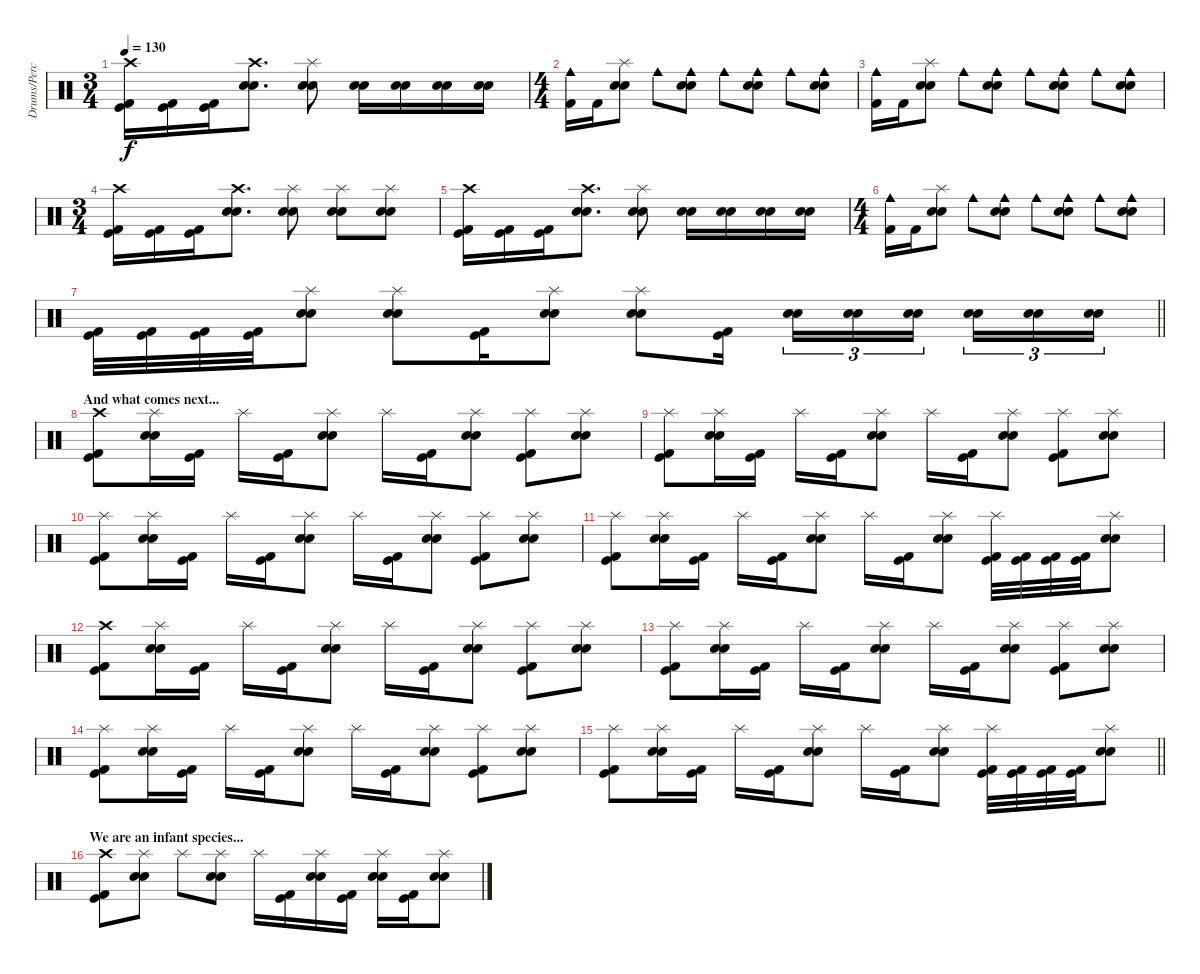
\track ("Drums/Percussion" "Drums/Perc") {instrument percussion}
\staff {score}
\articulation defaults
\ts (3 4)
\tempo 130
\clef neutral
\ks c
("Crash high (hit)" "Kick (hit)" "Kick (hit) 2").16{dy f} ("Kick (hit)" "Kick (hit) 2").16 ("Kick (hit)" "Kick (hit) 2").16 ("Crash high (hit)" "Electric Snare (hit)" "Snare (hit) 2").8{d} ("Splash (hit)" "Electric Snare (hit)" "Snare (hit) 2").8 ("Electric Snare (hit)" "Snare (hit) 2").16 ("Electric Snare (hit)" "Snare (hit) 2").16 ("Electric Snare (hit)" "Snare (hit) 2").16 ("Electric Snare (hit)" "Snare (hit) 2").16 |
\ts (4 4)
("Cowbell medium (hit)" "Kick (hit) 2").16 "Kick (hit) 2".16 ("Splash (hit)" "Electric Snare (hit)" "Snare (hit) 2").8 "Cowbell medium (hit)".8 ("Cowbell medium (hit)" "Electric Snare (hit)" "Snare (hit) 2").8 "Cowbell medium (hit)".8 ("Cowbell medium (hit)" "Electric Snare (hit)" "Snare (hit) 2").8 "Cowbell medium (hit)".8 ("Cowbell medium (hit)" "Electric Snare (hit)" "Snare (hit) 2").8 |
("Cowbell medium (hit)" "Kick (hit) 2").16 "Kick (hit) 2".16 ("Splash (hit)" "Electric Snare (hit)" "Snare (hit) 2").8 "Cowbell medium (hit)".8 ("Cowbell medium (hit)" "Electric Snare (hit)" "Snare (hit) 2").8 "Cowbell medium (hit)".8 ("Cowbell medium (hit)" "Electric Snare (hit)" "Snare (hit) 2").8 "Cowbell medium (hit)".8 ("Cowbell medium (hit)" "Electric Snare (hit)" "Snare (hit) 2").8 |
\ts (3 4)
("Crash high (hit)" "Kick (hit)" "Kick (hit) 2").16 ("Kick (hit)" "Kick (hit) 2").16 ("Kick (hit)" "Kick (hit) 2").16 ("Crash high (hit)" "Electric Snare (hit)" "Snare (hit) 2").8{d} ("Splash (hit)" "Electric Snare (hit)" "Snare (hit) 2").8 ("Splash (hit)" "Electric Snare (hit)" "Snare (hit) 2").8 ("Splash (hit)" "Electric Snare (hit)" "Snare (hit) 2").8 |
("Crash high (hit)" "Kick (hit)" "Kick (hit) 2").16 ("Kick (hit)" "Kick (hit) 2").16 ("Kick (hit)" "Kick (hit) 2").16 ("Crash high (hit)" "Electric Snare (hit)" "Snare (hit) 2").8{d} ("Splash (hit)" "Electric Snare (hit)" "Snare (hit) 2").8 ("Electric Snare (hit)" "Snare (hit) 2").16 ("Electric Snare (hit)" "Snare (hit) 2").16 ("Electric Snare (hit)" "Snare (hit) 2").16 ("Electric Snare (hit)" "Snare (hit) 2").16 |
\ts (4 4)
("Cowbell medium (hit)" "Kick (hit) 2").16 "Kick (hit) 2".16 ("Splash (hit)" "Electric Snare (hit)" "Snare (hit) 2").8 "Cowbell medium (hit)".8 ("Cowbell medium (hit)" "Electric Snare (hit)" "Snare (hit) 2").8 "Cowbell medium (hit)".8 ("Cowbell medium (hit)" "Electric Snare (hit)" "Snare (hit) 2").8 "Cowbell medium (hit)".8 ("Cowbell medium (hit)" "Electric Snare (hit)" "Snare (hit) 2").8 |
\barLineRight lightlight
("Kick (hit)" "Kick (hit) 2").32 ("Kick (hit)" "Kick (hit) 2").32 ("Kick (hit)" "Kick (hit) 2").32 ("Kick (hit)" "Kick (hit) 2").32 ("Splash (hit)" "Electric Snare (hit)" "Snare (hit) 2").8 ("Splash (hit)" "Electric Snare (hit)" "Snare (hit) 2").8 ("Kick (hit)" "Kick (hit) 2").16 ("Splash (hit)" "Electric Snare (hit)" "Snare (hit) 2").8 ("Splash (hit)" "Electric Snare (hit)" "Snare (hit) 2").8 ("Kick (hit)" "Kick (hit) 2").16 ("Electric Snare (hit)" "Snare (hit) 2").16{tu (3 2)} ("Electric Snare (hit)" "Snare (hit) 2").16{tu (3 2)} ("Electric Snare (hit)" "Snare (hit) 2").16{tu (3 2) beam splitsecondary} ("Electric Snare (hit)" "Snare (hit) 2").16{tu (3 2)} ("Electric Snare (hit)" "Snare (hit) 2").16{tu (3 2)} ("Electric Snare (hit)" "Snare (hit) 2").16{tu (3 2)} |
\section ("" "And what comes next...")
("Crash high (hit)" "Kick (hit)" "Kick (hit) 2").8 ("Splash (hit)" "Electric Snare (hit)" "Snare (hit) 2").16 ("Kick (hit)" "Kick (hit) 2").16 "Splash (hit)".16 ("Kick (hit)" "Kick (hit) 2").16 ("Splash (hit)" "Electric Snare (hit)" "Snare (hit) 2").8 "Splash (hit)".16 ("Kick (hit)" "Kick (hit) 2").16 ("Splash (hit)" "Electric Snare (hit)" "Snare (hit) 2").8 ("Splash (hit)" "Kick (hit)" "Kick (hit) 2").8 ("Splash (hit)" "Electric Snare (hit)" "Snare (hit) 2").8 |
("Splash (hit)" "Kick (hit)" "Kick (hit) 2").8 ("Splash (hit)" "Electric Snare (hit)" "Snare (hit) 2").16 ("Kick (hit)" "Kick (hit) 2").16 "Splash (hit)".16 ("Kick (hit)" "Kick (hit) 2").16 ("Splash (hit)" "Electric Snare (hit)" "Snare (hit) 2").8 "Splash (hit)".16 ("Kick (hit)" "Kick (hit) 2").16 ("Splash (hit)" "Electric Snare (hit)" "Snare (hit) 2").8 ("Splash (hit)" "Kick (hit)" "Kick (hit) 2").8 ("Splash (hit)" "Electric Snare (hit)" "Snare (hit) 2").8 |
("Splash (hit)" "Kick (hit)" "Kick (hit) 2").8 ("Splash (hit)" "Electric Snare (hit)" "Snare (hit) 2").16 ("Kick (hit)" "Kick (hit) 2").16 "Splash (hit)".16 ("Kick (hit)" "Kick (hit) 2").16 ("Splash (hit)" "Electric Snare (hit)" "Snare (hit) 2").8 "Splash (hit)".16 ("Kick (hit)" "Kick (hit) 2").16 ("Splash (hit)" "Electric Snare (hit)" "Snare (hit) 2").8 ("Splash (hit)" "Kick (hit)" "Kick (hit) 2").8 ("Splash (hit)" "Electric Snare (hit)" "Snare (hit) 2").8 |
("Splash (hit)" "Kick (hit)" "Kick (hit) 2").8 ("Splash (hit)" "Electric Snare (hit)" "Snare (hit) 2").16 ("Kick (hit)" "Kick (hit) 2").16 "Splash (hit)".16 ("Kick (hit)" "Kick (hit) 2").16 ("Splash (hit)" "Electric Snare (hit)" "Snare (hit) 2").8 "Splash (hit)".16 ("Kick (hit)" "Kick (hit) 2").16 ("Splash (hit)" "Electric Snare (hit)" "Snare (hit) 2").8 ("Splash (hit)" "Kick (hit)" "Kick (hit) 2").32 ("Kick (hit)" "Kick (hit) 2").32 ("Kick (hit)" "Kick (hit) 2").32 ("Kick (hit)" "Kick (hit) 2").32 ("Splash (hit)" "Electric Snare (hit)" "Snare (hit) 2").8 |
("Crash high (hit)" "Kick (hit)" "Kick (hit) 2").8 ("Splash (hit)" "Electric Snare (hit)" "Snare (hit) 2").16 ("Kick (hit)" "Kick (hit) 2").16 "Splash (hit)".16 ("Kick (hit)" "Kick (hit) 2").16 ("Splash (hit)" "Electric Snare (hit)" "Snare (hit) 2").8 "Splash (hit)".16 ("Kick (hit)" "Kick (hit) 2").16 ("Splash (hit)" "Electric Snare (hit)" "Snare (hit) 2").8 ("Splash (hit)" "Kick (hit)" "Kick (hit) 2").8 ("Splash (hit)" "Electric Snare (hit)" "Snare (hit) 2").8 |
("Splash (hit)" "Kick (hit)" "Kick (hit) 2").8 ("Splash (hit)" "Electric Snare (hit)" "Snare (hit) 2").16 ("Kick (hit)" "Kick (hit) 2").16 "Splash (hit)".16 ("Kick (hit)" "Kick (hit) 2").16 ("Splash (hit)" "Electric Snare (hit)" "Snare (hit) 2").8 "Splash (hit)".16 ("Kick (hit)" "Kick (hit) 2").16 ("Splash (hit)" "Electric Snare (hit)" "Snare (hit) 2").8 ("Splash (hit)" "Kick (hit)" "Kick (hit) 2").8 ("Splash (hit)" "Electric Snare (hit)" "Snare (hit) 2").8 |
("Splash (hit)" "Kick (hit)" "Kick (hit) 2").8 ("Splash (hit)" "Electric Snare (hit)" "Snare (hit) 2").16 ("Kick (hit)" "Kick (hit) 2").16 "Splash (hit)".16 ("Kick (hit)" "Kick (hit) 2").16 ("Splash (hit)" "Electric Snare (hit)" "Snare (hit) 2").8 "Splash (hit)".16 ("Kick (hit)" "Kick (hit) 2").16 ("Splash (hit)" "Electric Snare (hit)" "Snare (hit) 2").8 ("Splash (hit)" "Kick (hit)" "Kick (hit) 2").8 ("Splash (hit)" "Electric Snare (hit)" "Snare (hit) 2").8 |
\barLineRight lightlight
("Splash (hit)" "Kick (hit)" "Kick (hit) 2").8 ("Splash (hit)" "Electric Snare (hit)" "Snare (hit) 2").16 ("Kick (hit)" "Kick (hit) 2").16 "Splash (hit)".16 ("Kick (hit)" "Kick (hit) 2").16 ("Splash (hit)" "Electric Snare (hit)" "Snare (hit) 2").8 "Splash (hit)".16 ("Kick (hit)" "Kick (hit) 2").16 ("Splash (hit)" "Electric Snare (hit)" "Snare (hit) 2").8 ("Splash (hit)" "Kick (hit)" "Kick (hit) 2").32 ("Kick (hit)" "Kick (hit) 2").32 ("Kick (hit)" "Kick (hit) 2").32 ("Kick (hit)" "Kick (hit) 2").32 ("Splash (hit)" "Electric Snare (hit)" "Snare (hit) 2").8 |
\section ("" "We are an infant species...")
("Crash high (hit)" "Kick (hit)" "Kick (hit) 2").8 ("Splash (hit)" "Electric Snare (hit)" "Snare (hit) 2").8 "Splash (hit)".8 ("Splash (hit)" "Electric Snare (hit)" "Snare (hit) 2").8 "Splash (hit)".16 ("Kick (hit)" "Kick (hit) 2").16 ("Splash (hit)" "Electric Snare (hit)" "Snare (hit) 2").16 ("Kick (hit)" "Kick (hit) 2").16 ("Splash (hit)" "Electric Snare (hit)" "Snare (hit) 2").16 ("Kick (hit)" "Kick (hit) 2").16 ("Splash (hit)" "Electric Snare (hit)" "Snare (hit) 2").8
